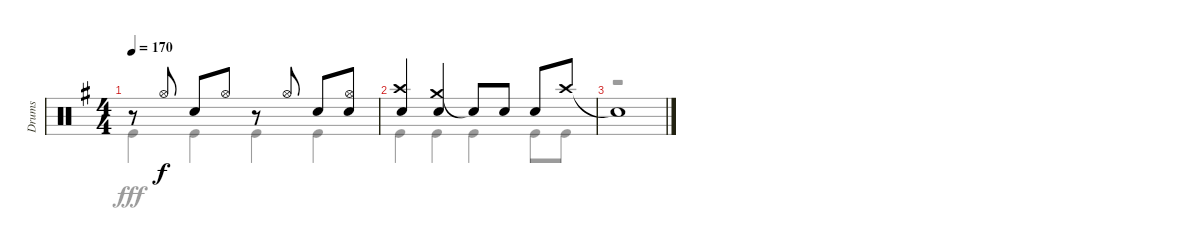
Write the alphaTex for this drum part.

\track ("Drums" "Drums") {instrument percussion}
\staff {score}
\articulation defaults
\voice
\ts (4 4)
\tempo 170
\clef neutral
\ks g
r.8{dy f} "Hi-Hat (open)".8 "Snare (hit) 2".8 "Hi-Hat (open)".8 r.8 "Hi-Hat (open)".8 "Snare (hit) 2".8 ("Hi-Hat (open)" "Snare (hit) 2").8 |
("Crash high (hit)" "Snare (hit) 2").4 ("Crash medium (hit)" "Snare (hit) 2").4 "Snare (hit)"{t}.8 "Snare (hit) 2".8 "Snare (hit) 2".8 "Crash high (hit)".8 |
"Snare (hit)"{t}.1
\voice
\clef neutral
\ottava regular
\simile none
\ks g "Kick (hit)".4{dy fff} "Kick (hit)".4 "Kick (hit)".4 "Kick (hit)".4
|
"Kick (hit)".4 "Kick (hit)".4 "Kick (hit)".4 "Kick (hit)".8 "Kick (hit)".8 |
r.1
